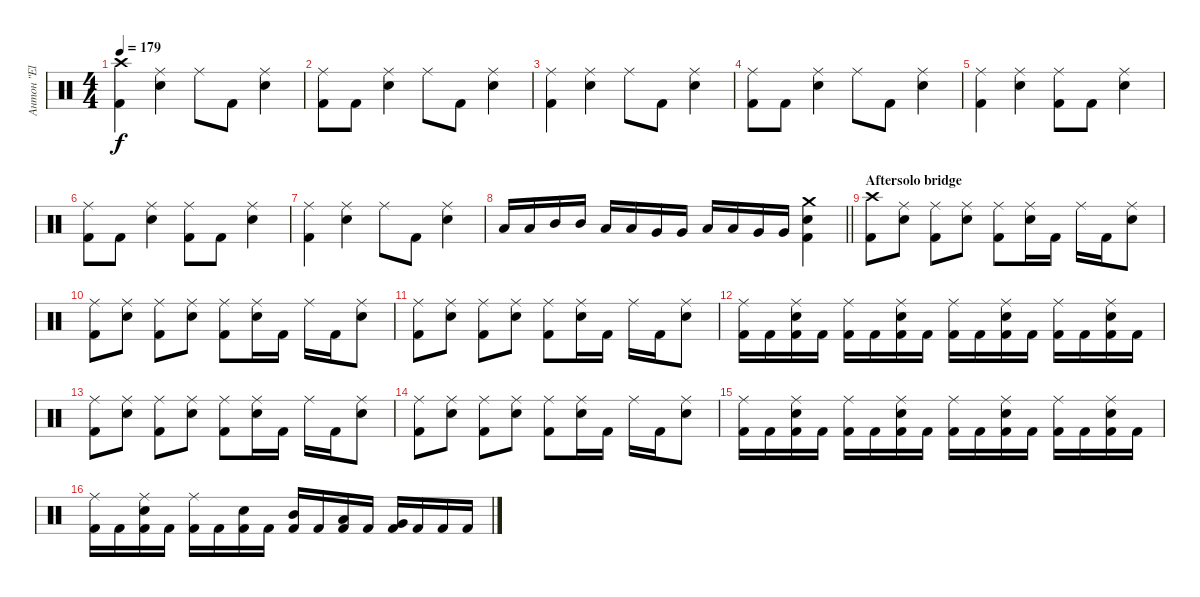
\track ("Антон \"El Bastardo\" Смольянин" "Антон \"El ") {instrument percussion}
\staff {score}
\articulation defaults
\ts (4 4)
\tempo 179
\clef neutral
\ks c
("Crash high (hit)" "Kick (hit) 2").4{dy f} ("Ride (middle)" "Electric Snare (hit)").4 "Ride (middle)".8 "Kick (hit) 2".8 ("Ride (middle)" "Electric Snare (hit)").4 |
("Ride (middle)" "Kick (hit) 2").8 "Kick (hit) 2".8 ("Ride (middle)" "Electric Snare (hit)").4 "Ride (middle)".8 "Kick (hit) 2".8 ("Ride (middle)" "Electric Snare (hit)").4 |
("Ride (middle)" "Kick (hit) 2").4 ("Ride (middle)" "Electric Snare (hit)").4 "Ride (middle)".8 "Kick (hit) 2".8 ("Ride (middle)" "Electric Snare (hit)").4 |
("Ride (middle)" "Kick (hit) 2").8 "Kick (hit) 2".8 ("Ride (middle)" "Electric Snare (hit)").4 "Ride (middle)".8 "Kick (hit) 2".8 ("Ride (middle)" "Electric Snare (hit)").4 |
("Ride (middle)" "Kick (hit) 2").4 ("Ride (middle)" "Electric Snare (hit)").4 ("Ride (middle)" "Kick (hit) 2").8 "Kick (hit) 2".8 ("Ride (middle)" "Electric Snare (hit)").4 |
("Ride (middle)" "Kick (hit) 2").8 "Kick (hit) 2".8 ("Ride (middle)" "Electric Snare (hit)").4 ("Ride (middle)" "Kick (hit) 2").8 "Kick (hit) 2".8 ("Ride (middle)" "Electric Snare (hit)").4 |
("Ride (middle)" "Kick (hit) 2").4 ("Ride (middle)" "Electric Snare (hit)").4 "Ride (middle)".8 "Kick (hit) 2".8 ("Ride (middle)" "Electric Snare (hit)").4 |
\barLineRight lightlight "Low Tom (hit)".16 "Low Tom (hit)".16 "Mid Tom (hit)".16 "Mid Tom (hit)".16 "Low Tom (hit)".16 "Low Tom (hit)".16 "Very Low Tom (hit)".16 "Very Low Tom (hit)".16 "Low Tom (hit)".16 "Low Tom (hit)".16 "Very Low Tom (hit)".16 "Very Low Tom (hit)".16
("Crash medium (hit)" "Electric Snare (hit)" "Kick (hit) 2").4 |
\section ("" "Aftersolo bridge")
("Crash high (hit)" "Kick (hit) 2").8 ("Ride (middle)" "Electric Snare (hit)").8 ("Ride (middle)" "Kick (hit) 2").8 ("Ride (middle)" "Electric Snare (hit)").8 ("Ride (middle)" "Kick (hit) 2").8 ("Ride (middle)" "Electric Snare (hit)").16 "Kick (hit) 2".16 "Ride (middle)".16 "Kick (hit) 2".16 ("Ride (middle)" "Electric Snare (hit)").8 |
("Ride (middle)" "Kick (hit) 2").8 ("Ride (middle)" "Electric Snare (hit)").8 ("Ride (middle)" "Kick (hit) 2").8 ("Ride (middle)" "Electric Snare (hit)").8 ("Ride (middle)" "Kick (hit) 2").8 ("Ride (middle)" "Electric Snare (hit)").16 "Kick (hit) 2".16 "Ride (middle)".16 "Kick (hit) 2".16 ("Ride (middle)" "Electric Snare (hit)").8 |
("Ride (middle)" "Kick (hit) 2").8 ("Ride (middle)" "Electric Snare (hit)").8 ("Ride (middle)" "Kick (hit) 2").8 ("Ride (middle)" "Electric Snare (hit)").8 ("Ride (middle)" "Kick (hit) 2").8 ("Ride (middle)" "Electric Snare (hit)").16 "Kick (hit) 2".16 "Ride (middle)".16 "Kick (hit) 2".16 ("Ride (middle)" "Electric Snare (hit)").8 |
("Ride (middle)" "Kick (hit) 2").16 "Kick (hit) 2".16 ("Ride (middle)" "Electric Snare (hit)" "Kick (hit) 2").16 "Kick (hit) 2".16 ("Ride (middle)" "Kick (hit) 2").16 "Kick (hit) 2".16 ("Ride (middle)" "Electric Snare (hit)" "Kick (hit) 2").16 "Kick (hit) 2".16 ("Ride (middle)" "Kick (hit) 2").16 "Kick (hit) 2".16 ("Ride (middle)" "Electric Snare (hit)" "Kick (hit) 2").16 "Kick (hit) 2".16 ("Ride (middle)" "Kick (hit) 2").16 "Kick (hit) 2".16 ("Ride (middle)" "Electric Snare (hit)" "Kick (hit) 2").16 "Kick (hit) 2".16 |
("Ride (middle)" "Kick (hit) 2").8 ("Ride (middle)" "Electric Snare (hit)").8 ("Ride (middle)" "Kick (hit) 2").8 ("Ride (middle)" "Electric Snare (hit)").8 ("Ride (middle)" "Kick (hit) 2").8 ("Ride (middle)" "Electric Snare (hit)").16 "Kick (hit) 2".16 "Ride (middle)".16 "Kick (hit) 2".16 ("Ride (middle)" "Electric Snare (hit)").8 |
("Ride (middle)" "Kick (hit) 2").8 ("Ride (middle)" "Electric Snare (hit)").8 ("Ride (middle)" "Kick (hit) 2").8 ("Ride (middle)" "Electric Snare (hit)").8 ("Ride (middle)" "Kick (hit) 2").8 ("Ride (middle)" "Electric Snare (hit)").16 "Kick (hit) 2".16 "Ride (middle)".16 "Kick (hit) 2".16 ("Ride (middle)" "Electric Snare (hit)").8 |
("Ride (middle)" "Kick (hit) 2").16 "Kick (hit) 2".16 ("Ride (middle)" "Electric Snare (hit)" "Kick (hit) 2").16 "Kick (hit) 2".16 ("Ride (middle)" "Kick (hit) 2").16 "Kick (hit) 2".16 ("Ride (middle)" "Electric Snare (hit)" "Kick (hit) 2").16 "Kick (hit) 2".16 ("Ride (middle)" "Kick (hit) 2").16 "Kick (hit) 2".16 ("Ride (middle)" "Electric Snare (hit)" "Kick (hit) 2").16 "Kick (hit) 2".16 ("Ride (middle)" "Kick (hit) 2").16 "Kick (hit) 2".16 ("Ride (middle)" "Electric Snare (hit)" "Kick (hit) 2").16 "Kick (hit) 2".16 |
("Ride (middle)" "Kick (hit) 2").16 "Kick (hit) 2".16 ("Ride (middle)" "Electric Snare (hit)" "Kick (hit) 2").16 "Kick (hit) 2".16 ("Ride (middle)" "Kick (hit) 2").16 "Kick (hit) 2".16 ("Electric Snare (hit)" "Kick (hit) 2").16 "Kick (hit) 2".16 ("Mid Tom (hit)" "Kick (hit) 2").16 "Kick (hit) 2".16 ("Low Tom (hit)" "Kick (hit) 2").16 "Kick (hit) 2".16 ("Very Low Tom (hit)" "Kick (hit) 2").16 "Kick (hit) 2".16 "Kick (hit) 2".16 "Kick (hit) 2".16
